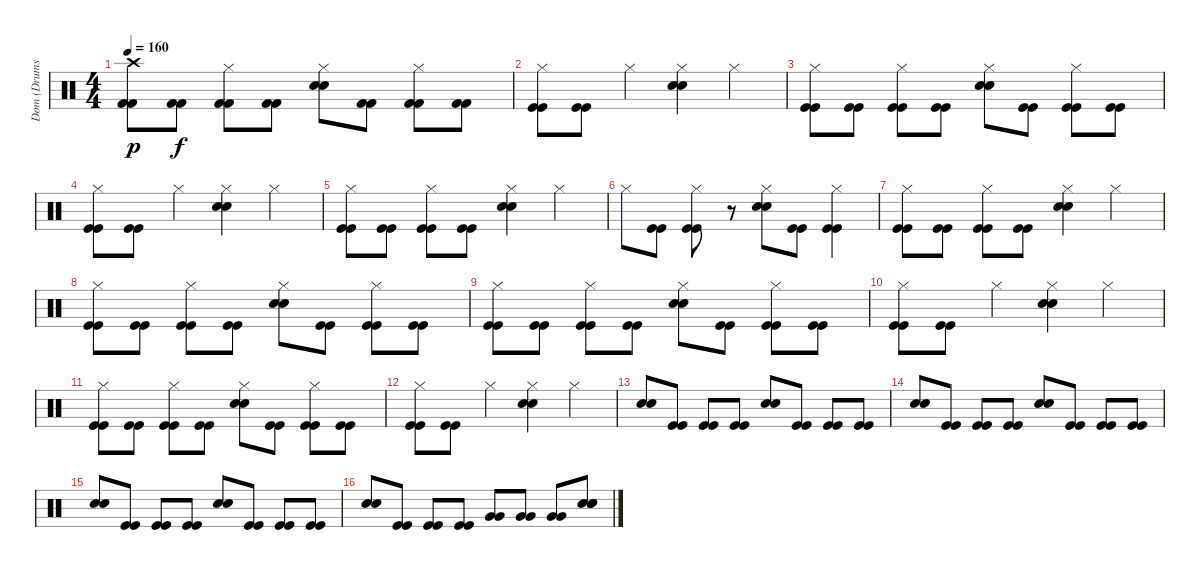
\track ("Dom (Drums)" "Dom (Drums") {instrument percussion}
\staff {score}
\articulation defaults
\ts (4 4)
\tempo 160
\clef neutral
\ks c
("Crash high (hit)" "Kick (hit) 2" "Kick (hit) 2").8{dy p volume 14} ("Kick (hit) 2" "Kick (hit) 2").8{dy f} ("Hi-Hat (closed)" "Kick (hit) 2" "Kick (hit) 2").8 ("Kick (hit) 2" "Kick (hit) 2").8 ("Hi-Hat (closed)" "Snare (hit) 2" "Snare (hit) 2").8 ("Kick (hit) 2" "Kick (hit) 2").8 ("Hi-Hat (closed)" "Kick (hit) 2" "Kick (hit) 2").8 ("Kick (hit) 2" "Kick (hit) 2").8 |
("Hi-Hat (closed)" "Kick (hit)" "Kick (hit)").8 ("Kick (hit)" "Kick (hit)").8 "Hi-Hat (closed)".4 ("Hi-Hat (closed)" "Snare (hit) 2" "Snare (hit) 2").4 "Hi-Hat (closed)".4 |
("Hi-Hat (closed)" "Kick (hit)" "Kick (hit)").8 ("Kick (hit)" "Kick (hit)").8 ("Hi-Hat (closed)" "Kick (hit)" "Kick (hit)").8 ("Kick (hit)" "Kick (hit)").8 ("Hi-Hat (closed)" "Snare (hit) 2" "Snare (hit) 2").8 ("Kick (hit)" "Kick (hit)").8 ("Hi-Hat (closed)" "Kick (hit)" "Kick (hit)").8 ("Kick (hit)" "Kick (hit)").8 |
("Hi-Hat (closed)" "Kick (hit)" "Kick (hit)").8 ("Kick (hit)" "Kick (hit)").8 "Hi-Hat (closed)".4 ("Hi-Hat (closed)" "Snare (hit) 2" "Snare (hit) 2").4 "Hi-Hat (closed)".4 |
("Hi-Hat (closed)" "Kick (hit)" "Kick (hit)").8 ("Kick (hit)" "Kick (hit)").8 ("Hi-Hat (closed)" "Kick (hit)" "Kick (hit)").8 ("Kick (hit)" "Kick (hit)").8 ("Hi-Hat (closed)" "Snare (hit) 2" "Snare (hit) 2").4 "Hi-Hat (closed)".4 |
"Hi-Hat (closed)".8 ("Kick (hit)" "Kick (hit)").8 ("Hi-Hat (closed)" "Kick (hit)" "Kick (hit)").8 r.8 ("Hi-Hat (closed)" "Snare (hit) 2" "Snare (hit) 2").8 ("Kick (hit)" "Kick (hit)").8 ("Hi-Hat (closed)" "Kick (hit)" "Kick (hit)").4 |
("Hi-Hat (closed)" "Kick (hit)" "Kick (hit)").8 ("Kick (hit)" "Kick (hit)").8 ("Hi-Hat (closed)" "Kick (hit)" "Kick (hit)").8 ("Kick (hit)" "Kick (hit)").8 ("Hi-Hat (closed)" "Snare (hit) 2" "Snare (hit) 2").4 "Hi-Hat (closed)".4 |
("Hi-Hat (closed)" "Kick (hit)" "Kick (hit)").8 ("Kick (hit)" "Kick (hit)").8 ("Hi-Hat (closed)" "Kick (hit)" "Kick (hit)").8 ("Kick (hit)" "Kick (hit)").8 ("Hi-Hat (closed)" "Snare (hit) 2" "Snare (hit) 2").8 ("Kick (hit)" "Kick (hit)").8 ("Hi-Hat (closed)" "Kick (hit)" "Kick (hit)").8 ("Kick (hit)" "Kick (hit)").8 |
("Hi-Hat (closed)" "Kick (hit)" "Kick (hit)").8 ("Kick (hit)" "Kick (hit)").8 ("Hi-Hat (closed)" "Kick (hit)" "Kick (hit)").8 ("Kick (hit)" "Kick (hit)").8 ("Hi-Hat (closed)" "Snare (hit) 2" "Snare (hit) 2").8 ("Kick (hit)" "Kick (hit)").8 ("Hi-Hat (closed)" "Kick (hit)" "Kick (hit)").8 ("Kick (hit)" "Kick (hit)").8 |
("Hi-Hat (closed)" "Kick (hit)" "Kick (hit)").8 ("Kick (hit)" "Kick (hit)").8 "Hi-Hat (closed)".4 ("Hi-Hat (closed)" "Snare (hit) 2" "Snare (hit) 2").4 "Hi-Hat (closed)".4 |
("Hi-Hat (closed)" "Kick (hit)" "Kick (hit)").8 ("Kick (hit)" "Kick (hit)").8 ("Hi-Hat (closed)" "Kick (hit)" "Kick (hit)").8 ("Kick (hit)" "Kick (hit)").8 ("Hi-Hat (closed)" "Snare (hit) 2" "Snare (hit) 2").8 ("Kick (hit)" "Kick (hit)").8 ("Hi-Hat (closed)" "Kick (hit)" "Kick (hit)").8 ("Kick (hit)" "Kick (hit)").8 |
("Hi-Hat (closed)" "Kick (hit)" "Kick (hit)").8 ("Kick (hit)" "Kick (hit)").8 "Hi-Hat (closed)".4 ("Hi-Hat (closed)" "Snare (hit) 2" "Snare (hit) 2").4 "Hi-Hat (closed)".4 |
("Snare (hit) 2" "Snare (hit) 2").8 ("Kick (hit)" "Kick (hit)").8 ("Kick (hit)" "Kick (hit)").8 ("Kick (hit)" "Kick (hit)").8 ("Snare (hit) 2" "Snare (hit) 2").8 ("Kick (hit)" "Kick (hit)").8 ("Kick (hit)" "Kick (hit)").8 ("Kick (hit)" "Kick (hit)").8 |
("Snare (hit) 2" "Snare (hit) 2").8 ("Kick (hit)" "Kick (hit)").8 ("Kick (hit)" "Kick (hit)").8 ("Kick (hit)" "Kick (hit)").8 ("Snare (hit) 2" "Snare (hit) 2").8 ("Kick (hit)" "Kick (hit)").8 ("Kick (hit)" "Kick (hit)").8 ("Kick (hit)" "Kick (hit)").8 |
("Snare (hit) 2" "Snare (hit) 2").8 ("Kick (hit)" "Kick (hit)").8 ("Kick (hit)" "Kick (hit)").8 ("Kick (hit)" "Kick (hit)").8 ("Snare (hit) 2" "Snare (hit) 2").8 ("Kick (hit)" "Kick (hit)").8 ("Kick (hit)" "Kick (hit)").8 ("Kick (hit)" "Kick (hit)").8 |
("Snare (hit) 2" "Snare (hit) 2").8 ("Kick (hit)" "Kick (hit)").8 ("Kick (hit)" "Kick (hit)").8 ("Kick (hit)" "Kick (hit)").8 ("Very Low Tom (hit)" "Very Low Tom (hit)").8 ("Very Low Tom (hit)" "Very Low Tom (hit)").8 ("Very Low Tom (hit)" "Very Low Tom (hit)").8 ("Snare (hit) 2" "Snare (hit) 2" "Snare (hit) 2").8
